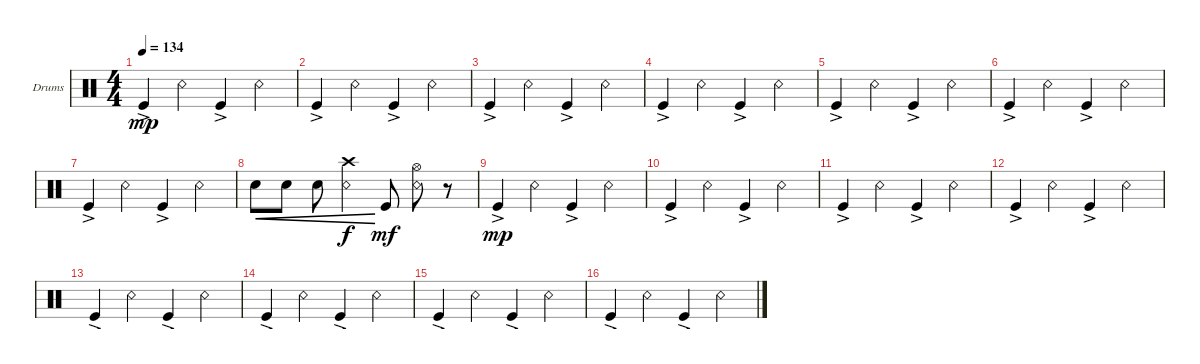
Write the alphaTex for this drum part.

\defaultSystemsLayout 4
\bracketExtendMode groupsimilarinstruments
\firstSystemTrackNameOrientation horizontal
\otherSystemsTrackNameOrientation horizontal
\track ("Drumkit" "Drums") {instrument percussion}
\staff {score}
\articulation defaults
\ts (4 4)
\tempo 134
\clef neutral
\ks c "Kick (hit)"{ac}.4{dy mp} "Snare (rim shot)".4 "Kick (hit)"{ac}.4 "Snare (rim shot)".4
|
"Kick (hit)"{ac}.4 "Snare (rim shot)".4 "Kick (hit)"{ac}.4 "Snare (rim shot)".4 |
"Kick (hit)"{ac}.4 "Snare (rim shot)".4 "Kick (hit)"{ac}.4 "Snare (rim shot)".4 |
"Kick (hit)"{ac}.4 "Snare (rim shot)".4 "Kick (hit)"{ac}.4 "Snare (rim shot)".4 |
"Kick (hit)"{ac}.4 "Snare (rim shot)".4 "Kick (hit)"{ac}.4 "Snare (rim shot)".4 |
"Kick (hit)"{ac}.4 "Snare (rim shot)".4 "Kick (hit)"{ac}.4 "Snare (rim shot)".4 |
"Kick (hit)"{ac}.4 "Snare (rim shot)".4 "Kick (hit)"{ac}.4 "Snare (rim shot)".4 |
"Snare (hit) 2".8{cre} "Snare (hit) 2".8{cre} "Snare (hit) 2".8{cre} ("Snare (rim shot)" "Crash high (hit)").4{cre dy f} "Kick (hit)".8{dy mf} ("Snare (rim shot)" "Hi-Hat (open)").8 r.8 |
"Kick (hit)"{ac}.4{dy mp} "Snare (rim shot)".4 "Kick (hit)"{ac}.4 "Snare (rim shot)".4 |
"Kick (hit)"{ac}.4 "Snare (rim shot)".4 "Kick (hit)"{ac}.4 "Snare (rim shot)".4 |
"Kick (hit)"{ac}.4 "Snare (rim shot)".4 "Kick (hit)"{ac}.4 "Snare (rim shot)".4 |
"Kick (hit)"{ac}.4 "Snare (rim shot)".4 "Kick (hit)"{ac}.4 "Snare (rim shot)".4 |
"Kick (hit)"{ac}.4 "Snare (rim shot)".4 "Kick (hit)"{ac}.4 "Snare (rim shot)".4 |
"Kick (hit)"{ac}.4 "Snare (rim shot)".4 "Kick (hit)"{ac}.4 "Snare (rim shot)".4 |
"Kick (hit)"{ac}.4 "Snare (rim shot)".4 "Kick (hit)"{ac}.4 "Snare (rim shot)".4 |
"Kick (hit)"{ac}.4 "Snare (rim shot)".4 "Kick (hit)"{ac}.4 "Snare (rim shot)".4
